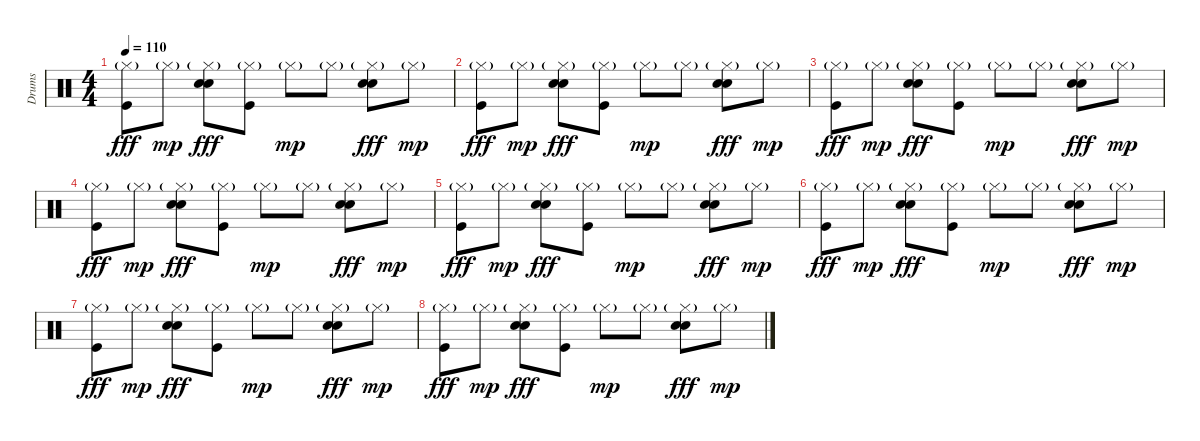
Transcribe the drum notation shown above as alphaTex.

\track ("Drums" "Drums") {instrument percussion}
\staff {score}
\articulation defaults
\ts (4 4)
\tempo 110
\clef neutral
\ks c
("Hi-Hat (closed)"{g} "Kick (hit)").8{dy fff} "Hi-Hat (closed)"{g}.8{dy mp} ("Hi-Hat (closed)"{g} "Electric Snare (hit)" "Hand Clap (hit)").8{dy fff} ("Hi-Hat (closed)"{g} "Kick (hit)").8 "Hi-Hat (closed)"{g}.8{dy mp} "Hi-Hat (closed)"{g}.8 ("Hi-Hat (closed)"{g} "Electric Snare (hit)" "Hand Clap (hit)").8{dy fff} "Hi-Hat (closed)"{g}.8{dy mp} |
("Hi-Hat (closed)"{g} "Kick (hit)").8{dy fff} "Hi-Hat (closed)"{g}.8{dy mp} ("Hi-Hat (closed)"{g} "Electric Snare (hit)" "Hand Clap (hit)").8{dy fff} ("Hi-Hat (closed)"{g} "Kick (hit)").8 "Hi-Hat (closed)"{g}.8{dy mp} "Hi-Hat (closed)"{g}.8 ("Hi-Hat (closed)"{g} "Electric Snare (hit)" "Hand Clap (hit)").8{dy fff} "Hi-Hat (closed)"{g}.8{dy mp} |
("Hi-Hat (closed)"{g} "Kick (hit)").8{dy fff} "Hi-Hat (closed)"{g}.8{dy mp} ("Hi-Hat (closed)"{g} "Electric Snare (hit)" "Hand Clap (hit)").8{dy fff} ("Hi-Hat (closed)"{g} "Kick (hit)").8 "Hi-Hat (closed)"{g}.8{dy mp} "Hi-Hat (closed)"{g}.8 ("Hi-Hat (closed)"{g} "Electric Snare (hit)" "Hand Clap (hit)").8{dy fff} "Hi-Hat (closed)"{g}.8{dy mp} |
("Hi-Hat (closed)"{g} "Kick (hit)").8{dy fff} "Hi-Hat (closed)"{g}.8{dy mp} ("Hi-Hat (closed)"{g} "Electric Snare (hit)" "Hand Clap (hit)").8{dy fff} ("Hi-Hat (closed)"{g} "Kick (hit)").8 "Hi-Hat (closed)"{g}.8{dy mp} "Hi-Hat (closed)"{g}.8 ("Hi-Hat (closed)"{g} "Electric Snare (hit)" "Hand Clap (hit)").8{dy fff} "Hi-Hat (closed)"{g}.8{dy mp} |
("Hi-Hat (closed)"{g} "Kick (hit)").8{dy fff} "Hi-Hat (closed)"{g}.8{dy mp} ("Hi-Hat (closed)"{g} "Electric Snare (hit)" "Hand Clap (hit)").8{dy fff} ("Hi-Hat (closed)"{g} "Kick (hit)").8 "Hi-Hat (closed)"{g}.8{dy mp} "Hi-Hat (closed)"{g}.8 ("Hi-Hat (closed)"{g} "Electric Snare (hit)" "Hand Clap (hit)").8{dy fff} "Hi-Hat (closed)"{g}.8{dy mp} |
("Hi-Hat (closed)"{g} "Kick (hit)").8{dy fff} "Hi-Hat (closed)"{g}.8{dy mp} ("Hi-Hat (closed)"{g} "Electric Snare (hit)" "Hand Clap (hit)").8{dy fff} ("Hi-Hat (closed)"{g} "Kick (hit)").8 "Hi-Hat (closed)"{g}.8{dy mp} "Hi-Hat (closed)"{g}.8 ("Hi-Hat (closed)"{g} "Electric Snare (hit)" "Hand Clap (hit)").8{dy fff} "Hi-Hat (closed)"{g}.8{dy mp} |
("Hi-Hat (closed)"{g} "Kick (hit)").8{dy fff} "Hi-Hat (closed)"{g}.8{dy mp} ("Hi-Hat (closed)"{g} "Electric Snare (hit)" "Hand Clap (hit)").8{dy fff} ("Hi-Hat (closed)"{g} "Kick (hit)").8 "Hi-Hat (closed)"{g}.8{dy mp} "Hi-Hat (closed)"{g}.8 ("Hi-Hat (closed)"{g} "Electric Snare (hit)" "Hand Clap (hit)").8{dy fff} "Hi-Hat (closed)"{g}.8{dy mp} |
("Hi-Hat (closed)"{g} "Kick (hit)").8{dy fff} "Hi-Hat (closed)"{g}.8{dy mp} ("Hi-Hat (closed)"{g} "Electric Snare (hit)" "Hand Clap (hit)").8{dy fff} ("Hi-Hat (closed)"{g} "Kick (hit)").8 "Hi-Hat (closed)"{g}.8{dy mp} "Hi-Hat (closed)"{g}.8 ("Hi-Hat (closed)"{g} "Electric Snare (hit)" "Hand Clap (hit)").8{dy fff} "Hi-Hat (closed)"{g}.8{dy mp}
